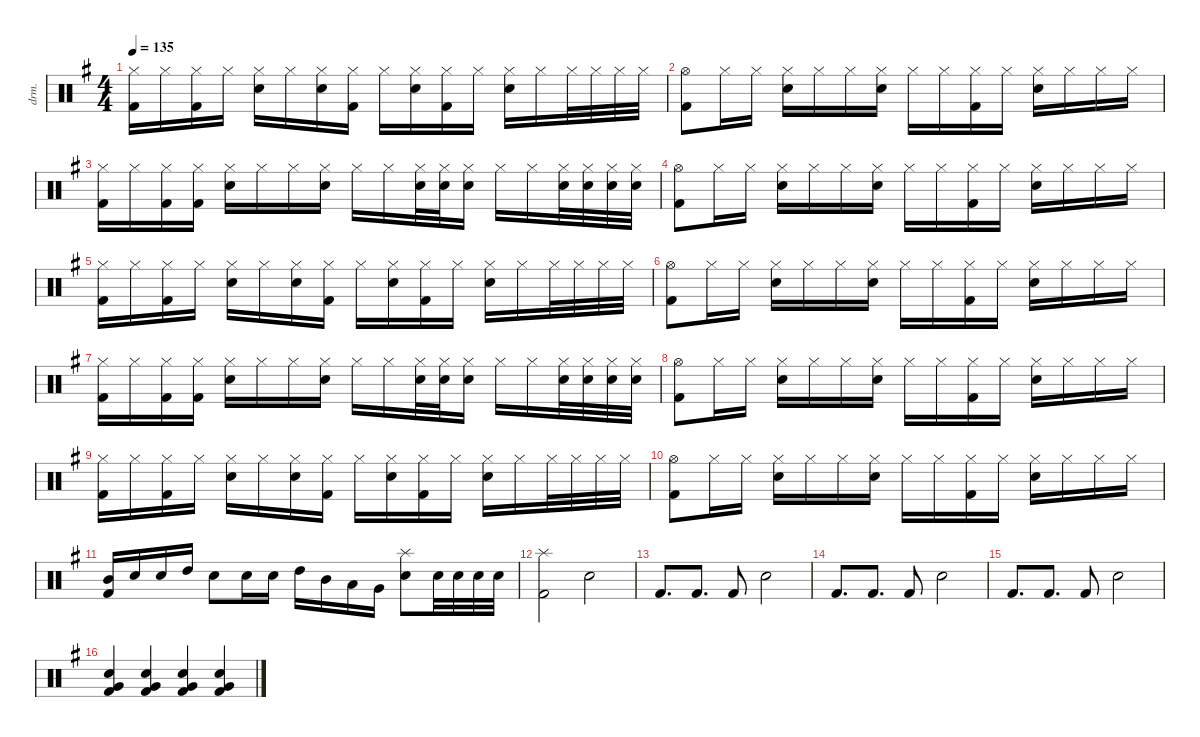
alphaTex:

\defaultSystemsLayout 4
\hideDynamics
\bracketExtendMode nobrackets
\track ("榧" "drm.") {instrument percussion}
\staff {score}
\articulation defaults
\ts (4 4)
\tempo 135
\clef neutral
\ks eminor
("Kick (hit) 2"{acc forcenatural} "Hi-Hat (closed)"{acc forcenatural}).16{dy mf beam Down} "Hi-Hat (closed)"{acc forcenatural}.16{beam Down} ("Hi-Hat (closed)"{acc forcenatural} "Kick (hit) 2"{acc forcenatural}).16{beam Down} "Hi-Hat (closed)"{acc forcenatural}.16{beam Down} ("Hi-Hat (closed)"{acc forcenatural} "Snare (hit) 2"{acc forcenatural}).16{beam Down} "Hi-Hat (closed)"{acc forcenatural}.16{beam Down} ("Hi-Hat (closed)"{acc forcenatural} "Snare (hit) 2"{acc forcenatural}).16{beam Down} ("Hi-Hat (closed)"{acc forcenatural} "Kick (hit) 2"{acc forcenatural}).16{beam Down} "Hi-Hat (closed)"{acc forcenatural}.16{beam Down} ("Hi-Hat (closed)"{acc forcenatural} "Snare (hit) 2"{acc forcenatural}).16{beam Down} ("Hi-Hat (closed)"{acc forcenatural} "Kick (hit) 2"{acc forcenatural}).16{beam Down} "Hi-Hat (closed)"{acc forcenatural}.16{beam Down} ("Hi-Hat (closed)"{acc forcenatural} "Snare (hit) 2"{acc forcenatural}).16{beam Down} "Hi-Hat (closed)"{acc forcenatural}.16{beam Down} "Hi-Hat (closed)"{acc forcenatural}.32{beam Down} "Hi-Hat (closed)"{acc forcenatural}.32{beam Down} "Hi-Hat (closed)"{acc forcenatural}.32{beam Down} "Hi-Hat (closed)"{acc forcenatural}.32{beam Down} |
("Kick (hit) 2"{acc forcenatural} "Hi-Hat (open)"{acc forcenatural}).8{beam Down} "Hi-Hat (closed)"{acc forcenatural}.16{beam Down} "Hi-Hat (closed)"{acc forcenatural}.16{beam Down} ("Hi-Hat (closed)"{acc forcenatural} "Snare (hit) 2"{acc forcenatural}).16{beam Down} "Hi-Hat (closed)"{acc forcenatural}.16{beam Down} "Hi-Hat (closed)"{acc forcenatural}.16{beam Down} ("Hi-Hat (closed)"{acc forcenatural} "Snare (hit) 2"{acc forcenatural}).16{beam Down} "Hi-Hat (closed)"{acc forcenatural}.16{beam Down} "Hi-Hat (closed)"{acc forcenatural}.16{beam Down} ("Hi-Hat (closed)"{acc forcenatural} "Kick (hit) 2"{acc forcenatural}).16{beam Down} "Hi-Hat (closed)"{acc forcenatural}.16{beam Down} ("Hi-Hat (closed)"{acc forcenatural} "Snare (hit) 2"{acc forcenatural}).16{beam Down} "Hi-Hat (closed)"{acc forcenatural}.16{beam Down} "Hi-Hat (closed)"{acc forcenatural}.16{beam Down} "Hi-Hat (closed)"{acc forcenatural}.16{beam Down} |
("Kick (hit) 2"{acc forcenatural} "Hi-Hat (closed)"{acc forcenatural}).16{beam Down} "Hi-Hat (closed)"{acc forcenatural}.16{beam Down} ("Hi-Hat (closed)"{acc forcenatural} "Kick (hit) 2"{acc forcenatural}).16{beam Down} ("Hi-Hat (closed)"{acc forcenatural} "Kick (hit) 2"{acc forcenatural}).16{beam Down} ("Hi-Hat (closed)"{acc forcenatural} "Snare (hit) 2"{acc forcenatural}).16{beam Down} "Hi-Hat (closed)"{acc forcenatural}.16{beam Down} "Hi-Hat (closed)"{acc forcenatural}.16{beam Down} ("Hi-Hat (closed)"{acc forcenatural} "Snare (hit) 2"{acc forcenatural}).16{beam Down} "Hi-Hat (closed)"{acc forcenatural}.16{beam Down} "Hi-Hat (closed)"{acc forcenatural}.16{beam Down} ("Hi-Hat (closed)"{acc forcenatural} "Snare (hit) 2"{acc forcenatural}).32{beam Down} ("Hi-Hat (closed)"{acc forcenatural} "Snare (hit) 2"{acc forcenatural}).32{beam Down} ("Hi-Hat (closed)"{acc forcenatural} "Snare (hit) 2"{acc forcenatural}).16{beam Down} "Hi-Hat (closed)"{acc forcenatural}.16{beam Down} "Hi-Hat (closed)"{acc forcenatural}.16{beam Down} ("Hi-Hat (closed)"{acc forcenatural} "Snare (hit) 2"{acc forcenatural}).32{beam Down} ("Hi-Hat (closed)"{acc forcenatural} "Snare (hit) 2"{acc forcenatural}).32{beam Down} ("Hi-Hat (closed)"{acc forcenatural} "Snare (hit) 2"{acc forcenatural}).32{beam Down} ("Hi-Hat (closed)"{acc forcenatural} "Snare (hit) 2"{acc forcenatural}).32{beam Down} |
("Kick (hit) 2"{acc forcenatural} "Hi-Hat (open)"{acc forcenatural}).8{beam Down} "Hi-Hat (closed)"{acc forcenatural}.16{beam Down} "Hi-Hat (closed)"{acc forcenatural}.16{beam Down} ("Hi-Hat (closed)"{acc forcenatural} "Snare (hit) 2"{acc forcenatural}).16{beam Down} "Hi-Hat (closed)"{acc forcenatural}.16{beam Down} "Hi-Hat (closed)"{acc forcenatural}.16{beam Down} ("Hi-Hat (closed)"{acc forcenatural} "Snare (hit) 2"{acc forcenatural}).16{beam Down} "Hi-Hat (closed)"{acc forcenatural}.16{beam Down} "Hi-Hat (closed)"{acc forcenatural}.16{beam Down} ("Hi-Hat (closed)"{acc forcenatural} "Kick (hit) 2"{acc forcenatural}).16{beam Down} "Hi-Hat (closed)"{acc forcenatural}.16{beam Down} ("Hi-Hat (closed)"{acc forcenatural} "Snare (hit) 2"{acc forcenatural}).16{beam Down} "Hi-Hat (closed)"{acc forcenatural}.16{beam Down} "Hi-Hat (closed)"{acc forcenatural}.16{beam Down} "Hi-Hat (closed)"{acc forcenatural}.16{beam Down} |
("Kick (hit) 2"{acc forcenatural} "Hi-Hat (closed)"{acc forcenatural}).16{beam Down} "Hi-Hat (closed)"{acc forcenatural}.16{beam Down} ("Hi-Hat (closed)"{acc forcenatural} "Kick (hit) 2"{acc forcenatural}).16{beam Down} "Hi-Hat (closed)"{acc forcenatural}.16{beam Down} ("Hi-Hat (closed)"{acc forcenatural} "Snare (hit) 2"{acc forcenatural}).16{beam Down} "Hi-Hat (closed)"{acc forcenatural}.16{beam Down} ("Hi-Hat (closed)"{acc forcenatural} "Snare (hit) 2"{acc forcenatural}).16{beam Down} ("Hi-Hat (closed)"{acc forcenatural} "Kick (hit) 2"{acc forcenatural}).16{beam Down} "Hi-Hat (closed)"{acc forcenatural}.16{beam Down} ("Hi-Hat (closed)"{acc forcenatural} "Snare (hit) 2"{acc forcenatural}).16{beam Down} ("Hi-Hat (closed)"{acc forcenatural} "Kick (hit) 2"{acc forcenatural}).16{beam Down} "Hi-Hat (closed)"{acc forcenatural}.16{beam Down} ("Hi-Hat (closed)"{acc forcenatural} "Snare (hit) 2"{acc forcenatural}).16{beam Down} "Hi-Hat (closed)"{acc forcenatural}.16{beam Down} "Hi-Hat (closed)"{acc forcenatural}.32{beam Down} "Hi-Hat (closed)"{acc forcenatural}.32{beam Down} "Hi-Hat (closed)"{acc forcenatural}.32{beam Down} "Hi-Hat (closed)"{acc forcenatural}.32{beam Down} |
("Kick (hit) 2"{acc forcenatural} "Hi-Hat (open)"{acc forcenatural}).8{beam Down} "Hi-Hat (closed)"{acc forcenatural}.16{beam Down} "Hi-Hat (closed)"{acc forcenatural}.16{beam Down} ("Hi-Hat (closed)"{acc forcenatural} "Snare (hit) 2"{acc forcenatural}).16{beam Down} "Hi-Hat (closed)"{acc forcenatural}.16{beam Down} "Hi-Hat (closed)"{acc forcenatural}.16{beam Down} ("Hi-Hat (closed)"{acc forcenatural} "Snare (hit) 2"{acc forcenatural}).16{beam Down} "Hi-Hat (closed)"{acc forcenatural}.16{beam Down} "Hi-Hat (closed)"{acc forcenatural}.16{beam Down} ("Hi-Hat (closed)"{acc forcenatural} "Kick (hit) 2"{acc forcenatural}).16{beam Down} "Hi-Hat (closed)"{acc forcenatural}.16{beam Down} ("Hi-Hat (closed)"{acc forcenatural} "Snare (hit) 2"{acc forcenatural}).16{beam Down} "Hi-Hat (closed)"{acc forcenatural}.16{beam Down} "Hi-Hat (closed)"{acc forcenatural}.16{beam Down} "Hi-Hat (closed)"{acc forcenatural}.16{beam Down} |
("Kick (hit) 2"{acc forcenatural} "Hi-Hat (closed)"{acc forcenatural}).16{beam Down} "Hi-Hat (closed)"{acc forcenatural}.16{beam Down} ("Hi-Hat (closed)"{acc forcenatural} "Kick (hit) 2"{acc forcenatural}).16{beam Down} ("Hi-Hat (closed)"{acc forcenatural} "Kick (hit) 2"{acc forcenatural}).16{beam Down} ("Hi-Hat (closed)"{acc forcenatural} "Snare (hit) 2"{acc forcenatural}).16{beam Down} "Hi-Hat (closed)"{acc forcenatural}.16{beam Down} "Hi-Hat (closed)"{acc forcenatural}.16{beam Down} ("Hi-Hat (closed)"{acc forcenatural} "Snare (hit) 2"{acc forcenatural}).16{beam Down} "Hi-Hat (closed)"{acc forcenatural}.16{beam Down} "Hi-Hat (closed)"{acc forcenatural}.16{beam Down} ("Hi-Hat (closed)"{acc forcenatural} "Snare (hit) 2"{acc forcenatural}).32{beam Down} ("Hi-Hat (closed)"{acc forcenatural} "Snare (hit) 2"{acc forcenatural}).32{beam Down} ("Hi-Hat (closed)"{acc forcenatural} "Snare (hit) 2"{acc forcenatural}).16{beam Down} "Hi-Hat (closed)"{acc forcenatural}.16{beam Down} "Hi-Hat (closed)"{acc forcenatural}.16{beam Down} ("Hi-Hat (closed)"{acc forcenatural} "Snare (hit) 2"{acc forcenatural}).32{beam Down} ("Hi-Hat (closed)"{acc forcenatural} "Snare (hit) 2"{acc forcenatural}).32{beam Down} ("Hi-Hat (closed)"{acc forcenatural} "Snare (hit) 2"{acc forcenatural}).32{beam Down} ("Hi-Hat (closed)"{acc forcenatural} "Snare (hit) 2"{acc forcenatural}).32{beam Down} |
("Kick (hit) 2"{acc forcenatural} "Hi-Hat (open)"{acc forcenatural}).8{beam Down} "Hi-Hat (closed)"{acc forcenatural}.16{beam Down} "Hi-Hat (closed)"{acc forcenatural}.16{beam Down} ("Hi-Hat (closed)"{acc forcenatural} "Snare (hit) 2"{acc forcenatural}).16{beam Down} "Hi-Hat (closed)"{acc forcenatural}.16{beam Down} "Hi-Hat (closed)"{acc forcenatural}.16{beam Down} ("Hi-Hat (closed)"{acc forcenatural} "Snare (hit) 2"{acc forcenatural}).16{beam Down} "Hi-Hat (closed)"{acc forcenatural}.16{beam Down} "Hi-Hat (closed)"{acc forcenatural}.16{beam Down} ("Hi-Hat (closed)"{acc forcenatural} "Kick (hit) 2"{acc forcenatural}).16{beam Down} "Hi-Hat (closed)"{acc forcenatural}.16{beam Down} ("Hi-Hat (closed)"{acc forcenatural} "Snare (hit) 2"{acc forcenatural}).16{beam Down} "Hi-Hat (closed)"{acc forcenatural}.16{beam Down} "Hi-Hat (closed)"{acc forcenatural}.16{beam Down} "Hi-Hat (closed)"{acc forcenatural}.16{beam Down} |
("Kick (hit) 2"{acc forcenatural} "Hi-Hat (closed)"{acc forcenatural}).16{beam Down} "Hi-Hat (closed)"{acc forcenatural}.16{beam Down} ("Hi-Hat (closed)"{acc forcenatural} "Kick (hit) 2"{acc forcenatural}).16{beam Down} "Hi-Hat (closed)"{acc forcenatural}.16{beam Down} ("Hi-Hat (closed)"{acc forcenatural} "Snare (hit) 2"{acc forcenatural}).16{beam Down} "Hi-Hat (closed)"{acc forcenatural}.16{beam Down} ("Hi-Hat (closed)"{acc forcenatural} "Snare (hit) 2"{acc forcenatural}).16{beam Down} ("Hi-Hat (closed)"{acc forcenatural} "Kick (hit) 2"{acc forcenatural}).16{beam Down} "Hi-Hat (closed)"{acc forcenatural}.16{beam Down} ("Hi-Hat (closed)"{acc forcenatural} "Snare (hit) 2"{acc forcenatural}).16{beam Down} ("Hi-Hat (closed)"{acc forcenatural} "Kick (hit) 2"{acc forcenatural}).16{beam Down} "Hi-Hat (closed)"{acc forcenatural}.16{beam Down} ("Hi-Hat (closed)"{acc forcenatural} "Snare (hit) 2"{acc forcenatural}).16{beam Down} "Hi-Hat (closed)"{acc forcenatural}.16{beam Down} "Hi-Hat (closed)"{acc forcenatural}.32{beam Down} "Hi-Hat (closed)"{acc forcenatural}.32{beam Down} "Hi-Hat (closed)"{acc forcenatural}.32{beam Down} "Hi-Hat (closed)"{acc forcenatural}.32{beam Down} |
("Kick (hit) 2"{acc forcenatural} "Hi-Hat (open)"{acc forcenatural}).8{beam Down} "Hi-Hat (closed)"{acc forcenatural}.16{beam Down} "Hi-Hat (closed)"{acc forcenatural}.16{beam Down} ("Hi-Hat (closed)"{acc forcenatural} "Snare (hit) 2"{acc forcenatural}).16{beam Down} "Hi-Hat (closed)"{acc forcenatural}.16{beam Down} "Hi-Hat (closed)"{acc forcenatural}.16{beam Down} ("Hi-Hat (closed)"{acc forcenatural} "Snare (hit) 2"{acc forcenatural}).16{beam Down} "Hi-Hat (closed)"{acc forcenatural}.16{beam Down} "Hi-Hat (closed)"{acc forcenatural}.16{beam Down} ("Hi-Hat (closed)"{acc forcenatural} "Kick (hit) 2"{acc forcenatural}).16{beam Down} "Hi-Hat (closed)"{acc forcenatural}.16{beam Down} ("Hi-Hat (closed)"{acc forcenatural} "Snare (hit) 2"{acc forcenatural}).16{beam Down} "Hi-Hat (closed)"{acc forcenatural}.16{beam Down} "Hi-Hat (closed)"{acc forcenatural}.16{beam Down} "Hi-Hat (closed)"{acc forcenatural}.16{beam Down} |
("Kick (hit) 2"{acc forcenatural} "Mid Tom (hit)"{acc forcenatural}).16{beam Up} "Snare (hit) 2"{acc forcenatural}.16{beam Up} "Snare (hit) 2"{acc forcenatural}.16{beam Up} "High Tom (hit)"{acc forcenatural}.16{beam Up} "Snare (hit) 2"{acc forcenatural}.8{beam Down} "Snare (hit) 2"{acc forcenatural}.16{beam Down} "Snare (hit) 2"{acc forcenatural}.16{beam Down} "High Tom (hit)"{acc forcenatural}.16{beam Down} "Mid Tom (hit)"{acc forcenatural}.16{beam Down} "Low Tom (hit)"{acc forcenatural}.16{beam Down} "Very Low Tom (hit)"{acc forcenatural}.16{beam Down} ("Splash (hit)"{acc forcenatural} "Snare (hit) 2"{acc forcenatural}).8{beam Down} "Snare (hit) 2"{acc forcenatural}.32{beam Down} "Snare (hit) 2"{acc forcenatural}.32{beam Down} "Snare (hit) 2"{acc forcenatural}.32{beam Down} "Snare (hit) 2"{acc forcenatural}.32{beam Down} |
("Splash (hit)"{acc forcenatural} "Kick (hit) 2"{acc forcenatural}).2{beam Down} "Snare (hit) 2"{acc forcenatural}.2{beam Down} |
"Kick (hit) 2"{acc forcenatural}.8{d beam Up} "Kick (hit) 2"{acc forcenatural}.8{d beam Up} "Kick (hit) 2"{acc forcenatural}.8{beam Up} "Snare (hit) 2"{acc forcenatural}.2{beam Down} |
"Kick (hit) 2"{acc forcenatural}.8{d beam Up} "Kick (hit) 2"{acc forcenatural}.8{d beam Up} "Kick (hit) 2"{acc forcenatural}.8{beam Up} "Snare (hit) 2"{acc forcenatural}.2{beam Down} |
"Kick (hit) 2"{acc forcenatural}.8{d beam Up} "Kick (hit) 2"{acc forcenatural}.8{d beam Up} "Kick (hit) 2"{acc forcenatural}.8{beam Up} "Snare (hit) 2"{acc forcenatural}.2{beam Down} |
("Snare (hit) 2"{acc forcenatural} "Very Low Tom (hit)"{acc forcenatural} "Kick (hit) 2"{acc forcenatural}).4{beam Up} ("Snare (hit) 2"{acc forcenatural} "Very Low Tom (hit)"{acc forcenatural} "Kick (hit) 2"{acc forcenatural}).4{beam Up} ("Snare (hit) 2"{acc forcenatural} "Very Low Tom (hit)"{acc forcenatural} "Kick (hit) 2"{acc forcenatural}).4{beam Up} ("Snare (hit) 2"{acc forcenatural} "Very Low Tom (hit)"{acc forcenatural} "Kick (hit) 2"{acc forcenatural}).4{beam Up}
